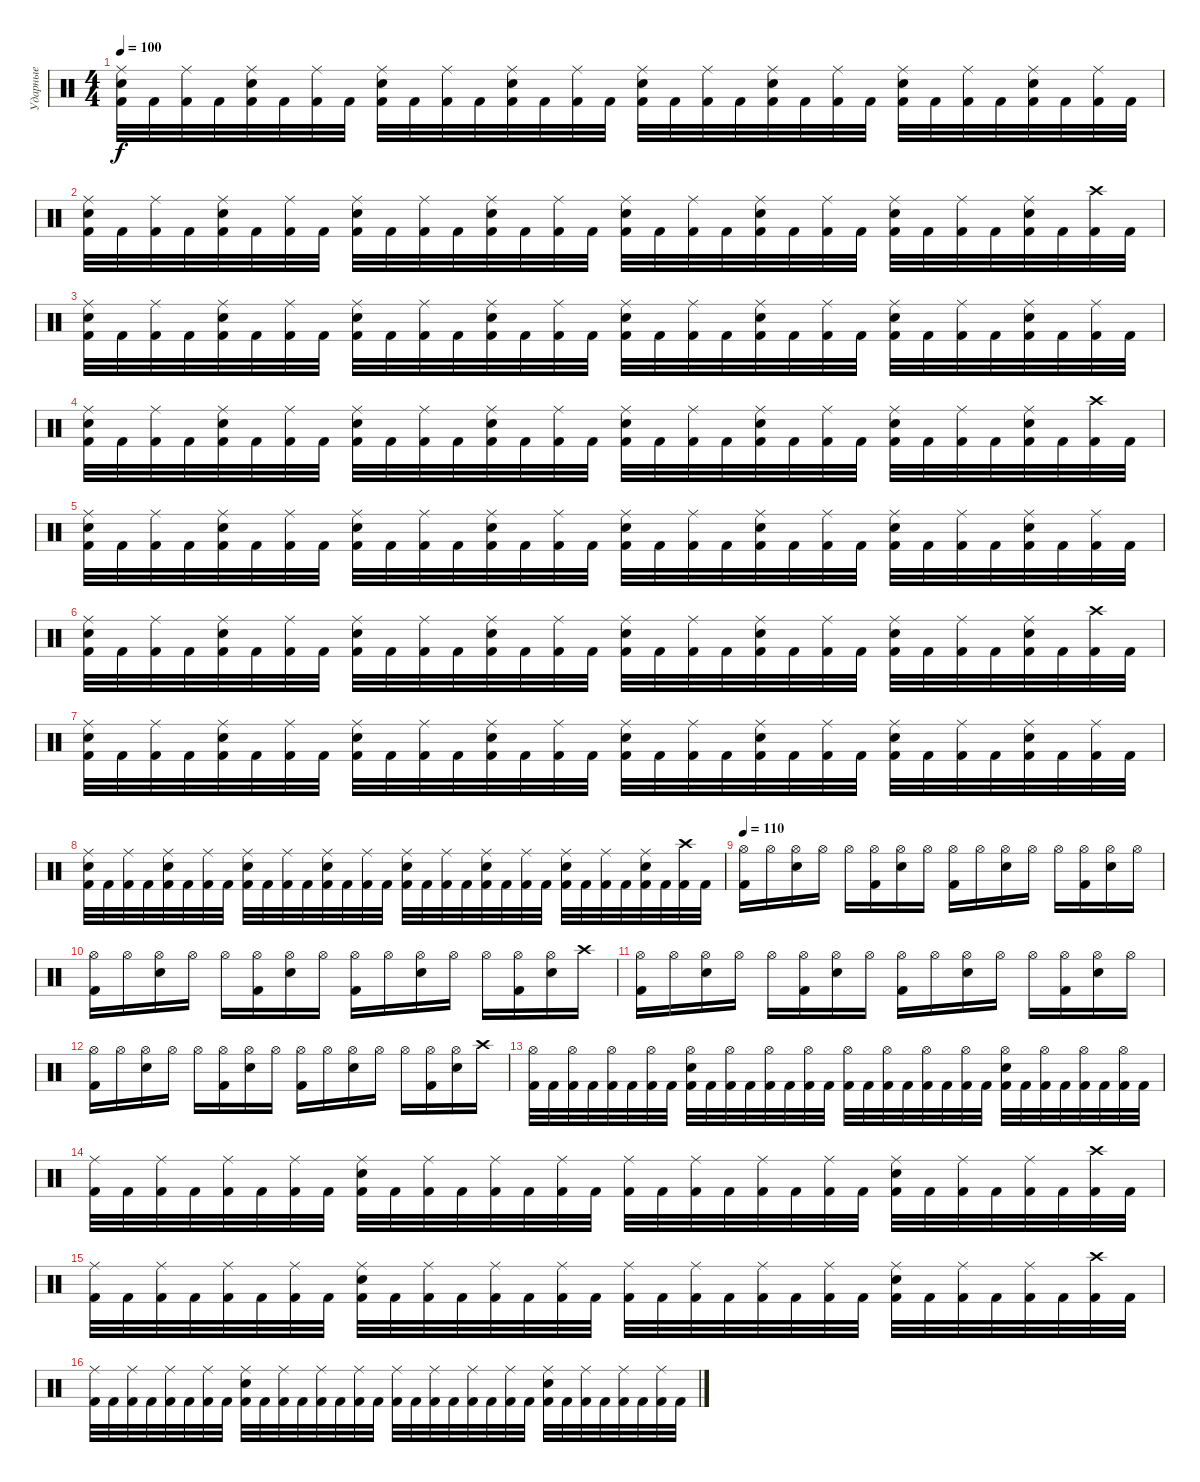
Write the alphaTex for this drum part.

\track ("Ударные" "Ударные") {instrument percussion}
\staff {score}
\articulation defaults
\ts (4 4)
\tempo 100
\clef neutral
\ks c
("Kick (hit) 2" "Snare (hit) 2" "Ride (middle)").32{dy f} "Kick (hit) 2".32 ("Kick (hit) 2" "Ride (middle)").32 "Kick (hit) 2".32 ("Kick (hit) 2" "Snare (hit) 2" "Ride (middle)").32 "Kick (hit) 2".32 ("Kick (hit) 2" "Ride (middle)").32 "Kick (hit) 2".32 ("Kick (hit) 2" "Snare (hit) 2" "Ride (middle)").32 "Kick (hit) 2".32 ("Kick (hit) 2" "Ride (middle)").32 "Kick (hit) 2".32 ("Kick (hit) 2" "Snare (hit) 2" "Ride (middle)").32 "Kick (hit) 2".32 ("Kick (hit) 2" "Ride (middle)").32 "Kick (hit) 2".32 ("Kick (hit) 2" "Snare (hit) 2" "Ride (middle)").32 "Kick (hit) 2".32 ("Kick (hit) 2" "Ride (middle)").32 "Kick (hit) 2".32 ("Kick (hit) 2" "Snare (hit) 2" "Ride (middle)").32 "Kick (hit) 2".32 ("Kick (hit) 2" "Ride (middle)").32 "Kick (hit) 2".32 ("Kick (hit) 2" "Snare (hit) 2" "Ride (middle)").32 "Kick (hit) 2".32 ("Kick (hit) 2" "Ride (middle)").32 "Kick (hit) 2".32 ("Kick (hit) 2" "Snare (hit) 2" "Ride (middle)").32 "Kick (hit) 2".32 ("Kick (hit) 2" "Ride (middle)").32 "Kick (hit) 2".32 |
("Kick (hit) 2" "Snare (hit) 2" "Ride (middle)").32 "Kick (hit) 2".32 ("Kick (hit) 2" "Ride (middle)").32 "Kick (hit) 2".32 ("Kick (hit) 2" "Snare (hit) 2" "Ride (middle)").32 "Kick (hit) 2".32 ("Kick (hit) 2" "Ride (middle)").32 "Kick (hit) 2".32 ("Kick (hit) 2" "Snare (hit) 2" "Ride (middle)").32 "Kick (hit) 2".32 ("Kick (hit) 2" "Ride (middle)").32 "Kick (hit) 2".32 ("Kick (hit) 2" "Snare (hit) 2" "Ride (middle)").32 "Kick (hit) 2".32 ("Kick (hit) 2" "Ride (middle)").32 "Kick (hit) 2".32 ("Kick (hit) 2" "Snare (hit) 2" "Ride (middle)").32 "Kick (hit) 2".32 ("Kick (hit) 2" "Ride (middle)").32 "Kick (hit) 2".32 ("Kick (hit) 2" "Snare (hit) 2" "Ride (middle)").32 "Kick (hit) 2".32 ("Kick (hit) 2" "Ride (middle)").32 "Kick (hit) 2".32 ("Kick (hit) 2" "Snare (hit) 2" "Ride (middle)").32 "Kick (hit) 2".32 ("Kick (hit) 2" "Ride (middle)").32 "Kick (hit) 2".32 ("Kick (hit) 2" "Snare (hit) 2" "Ride (middle)").32 "Kick (hit) 2".32 ("Kick (hit) 2" "Crash high (hit)").32 "Kick (hit) 2".32 |
("Kick (hit) 2" "Snare (hit) 2" "Ride (middle)").32 "Kick (hit) 2".32 ("Kick (hit) 2" "Ride (middle)").32 "Kick (hit) 2".32 ("Kick (hit) 2" "Snare (hit) 2" "Ride (middle)").32 "Kick (hit) 2".32 ("Kick (hit) 2" "Ride (middle)").32 "Kick (hit) 2".32 ("Kick (hit) 2" "Snare (hit) 2" "Ride (middle)").32 "Kick (hit) 2".32 ("Kick (hit) 2" "Ride (middle)").32 "Kick (hit) 2".32 ("Kick (hit) 2" "Snare (hit) 2" "Ride (middle)").32 "Kick (hit) 2".32 ("Kick (hit) 2" "Ride (middle)").32 "Kick (hit) 2".32 ("Kick (hit) 2" "Snare (hit) 2" "Ride (middle)").32 "Kick (hit) 2".32 ("Kick (hit) 2" "Ride (middle)").32 "Kick (hit) 2".32 ("Kick (hit) 2" "Snare (hit) 2" "Ride (middle)").32 "Kick (hit) 2".32 ("Kick (hit) 2" "Ride (middle)").32 "Kick (hit) 2".32 ("Kick (hit) 2" "Snare (hit) 2" "Ride (middle)").32 "Kick (hit) 2".32 ("Kick (hit) 2" "Ride (middle)").32 "Kick (hit) 2".32 ("Kick (hit) 2" "Snare (hit) 2" "Ride (middle)").32 "Kick (hit) 2".32 ("Kick (hit) 2" "Ride (middle)").32 "Kick (hit) 2".32 |
("Kick (hit) 2" "Snare (hit) 2" "Ride (middle)").32 "Kick (hit) 2".32 ("Kick (hit) 2" "Ride (middle)").32 "Kick (hit) 2".32 ("Kick (hit) 2" "Snare (hit) 2" "Ride (middle)").32 "Kick (hit) 2".32 ("Kick (hit) 2" "Ride (middle)").32 "Kick (hit) 2".32 ("Kick (hit) 2" "Snare (hit) 2" "Ride (middle)").32 "Kick (hit) 2".32 ("Kick (hit) 2" "Ride (middle)").32 "Kick (hit) 2".32 ("Kick (hit) 2" "Snare (hit) 2" "Ride (middle)").32 "Kick (hit) 2".32 ("Kick (hit) 2" "Ride (middle)").32 "Kick (hit) 2".32 ("Kick (hit) 2" "Snare (hit) 2" "Ride (middle)").32 "Kick (hit) 2".32 ("Kick (hit) 2" "Ride (middle)").32 "Kick (hit) 2".32 ("Kick (hit) 2" "Snare (hit) 2" "Ride (middle)").32 "Kick (hit) 2".32 ("Kick (hit) 2" "Ride (middle)").32 "Kick (hit) 2".32 ("Kick (hit) 2" "Snare (hit) 2" "Ride (middle)").32 "Kick (hit) 2".32 ("Kick (hit) 2" "Ride (middle)").32 "Kick (hit) 2".32 ("Kick (hit) 2" "Snare (hit) 2" "Ride (middle)").32 "Kick (hit) 2".32 ("Kick (hit) 2" "Crash high (hit)").32 "Kick (hit) 2".32 |
("Kick (hit) 2" "Snare (hit) 2" "Ride (middle)").32 "Kick (hit) 2".32 ("Kick (hit) 2" "Ride (middle)").32 "Kick (hit) 2".32 ("Kick (hit) 2" "Snare (hit) 2" "Ride (middle)").32 "Kick (hit) 2".32 ("Kick (hit) 2" "Ride (middle)").32 "Kick (hit) 2".32 ("Kick (hit) 2" "Snare (hit) 2" "Ride (middle)").32 "Kick (hit) 2".32 ("Kick (hit) 2" "Ride (middle)").32 "Kick (hit) 2".32 ("Kick (hit) 2" "Snare (hit) 2" "Ride (middle)").32 "Kick (hit) 2".32 ("Kick (hit) 2" "Ride (middle)").32 "Kick (hit) 2".32 ("Kick (hit) 2" "Snare (hit) 2" "Ride (middle)").32 "Kick (hit) 2".32 ("Kick (hit) 2" "Ride (middle)").32 "Kick (hit) 2".32 ("Kick (hit) 2" "Snare (hit) 2" "Ride (middle)").32 "Kick (hit) 2".32 ("Kick (hit) 2" "Ride (middle)").32 "Kick (hit) 2".32 ("Kick (hit) 2" "Snare (hit) 2" "Ride (middle)").32 "Kick (hit) 2".32 ("Kick (hit) 2" "Ride (middle)").32 "Kick (hit) 2".32 ("Kick (hit) 2" "Snare (hit) 2" "Ride (middle)").32 "Kick (hit) 2".32 ("Kick (hit) 2" "Ride (middle)").32 "Kick (hit) 2".32 |
("Kick (hit) 2" "Snare (hit) 2" "Ride (middle)").32 "Kick (hit) 2".32 ("Kick (hit) 2" "Ride (middle)").32 "Kick (hit) 2".32 ("Kick (hit) 2" "Snare (hit) 2" "Ride (middle)").32 "Kick (hit) 2".32 ("Kick (hit) 2" "Ride (middle)").32 "Kick (hit) 2".32 ("Kick (hit) 2" "Snare (hit) 2" "Ride (middle)").32 "Kick (hit) 2".32 ("Kick (hit) 2" "Ride (middle)").32 "Kick (hit) 2".32 ("Kick (hit) 2" "Snare (hit) 2" "Ride (middle)").32 "Kick (hit) 2".32 ("Kick (hit) 2" "Ride (middle)").32 "Kick (hit) 2".32 ("Kick (hit) 2" "Snare (hit) 2" "Ride (middle)").32 "Kick (hit) 2".32 ("Kick (hit) 2" "Ride (middle)").32 "Kick (hit) 2".32 ("Kick (hit) 2" "Snare (hit) 2" "Ride (middle)").32 "Kick (hit) 2".32 ("Kick (hit) 2" "Ride (middle)").32 "Kick (hit) 2".32 ("Kick (hit) 2" "Snare (hit) 2" "Ride (middle)").32 "Kick (hit) 2".32 ("Kick (hit) 2" "Ride (middle)").32 "Kick (hit) 2".32 ("Kick (hit) 2" "Snare (hit) 2" "Ride (middle)").32 "Kick (hit) 2".32 ("Kick (hit) 2" "Crash high (hit)").32 "Kick (hit) 2".32 |
("Kick (hit) 2" "Snare (hit) 2" "Ride (middle)").32 "Kick (hit) 2".32 ("Kick (hit) 2" "Ride (middle)").32 "Kick (hit) 2".32 ("Kick (hit) 2" "Snare (hit) 2" "Ride (middle)").32 "Kick (hit) 2".32 ("Kick (hit) 2" "Ride (middle)").32 "Kick (hit) 2".32 ("Kick (hit) 2" "Snare (hit) 2" "Ride (middle)").32 "Kick (hit) 2".32 ("Kick (hit) 2" "Ride (middle)").32 "Kick (hit) 2".32 ("Kick (hit) 2" "Snare (hit) 2" "Ride (middle)").32 "Kick (hit) 2".32 ("Kick (hit) 2" "Ride (middle)").32 "Kick (hit) 2".32 ("Kick (hit) 2" "Snare (hit) 2" "Ride (middle)").32 "Kick (hit) 2".32 ("Kick (hit) 2" "Ride (middle)").32 "Kick (hit) 2".32 ("Kick (hit) 2" "Snare (hit) 2" "Ride (middle)").32 "Kick (hit) 2".32 ("Kick (hit) 2" "Ride (middle)").32 "Kick (hit) 2".32 ("Kick (hit) 2" "Snare (hit) 2" "Ride (middle)").32 "Kick (hit) 2".32 ("Kick (hit) 2" "Ride (middle)").32 "Kick (hit) 2".32 ("Kick (hit) 2" "Snare (hit) 2" "Ride (middle)").32 "Kick (hit) 2".32 ("Kick (hit) 2" "Ride (middle)").32 "Kick (hit) 2".32 |
("Kick (hit) 2" "Snare (hit) 2" "Ride (middle)").32 "Kick (hit) 2".32 ("Kick (hit) 2" "Ride (middle)").32 "Kick (hit) 2".32 ("Kick (hit) 2" "Snare (hit) 2" "Ride (middle)").32 "Kick (hit) 2".32 ("Kick (hit) 2" "Ride (middle)").32 "Kick (hit) 2".32 ("Kick (hit) 2" "Snare (hit) 2" "Ride (middle)").32 "Kick (hit) 2".32 ("Kick (hit) 2" "Ride (middle)").32 "Kick (hit) 2".32 ("Kick (hit) 2" "Snare (hit) 2" "Ride (middle)").32 "Kick (hit) 2".32 ("Kick (hit) 2" "Ride (middle)").32 "Kick (hit) 2".32 ("Kick (hit) 2" "Snare (hit) 2" "Ride (middle)").32 "Kick (hit) 2".32 ("Kick (hit) 2" "Ride (middle)").32 "Kick (hit) 2".32 ("Kick (hit) 2" "Snare (hit) 2" "Ride (middle)").32 "Kick (hit) 2".32 ("Kick (hit) 2" "Ride (middle)").32 "Kick (hit) 2".32 ("Kick (hit) 2" "Snare (hit) 2" "Ride (middle)").32 "Kick (hit) 2".32 ("Kick (hit) 2" "Ride (middle)").32 "Kick (hit) 2".32 ("Kick (hit) 2" "Snare (hit) 2" "Ride (middle)").32 "Kick (hit) 2".32 ("Kick (hit) 2" "Crash high (hit)").32 "Kick (hit) 2".32 |
\tempo 110
("Hi-Hat (open)" "Kick (hit) 2").16 "Hi-Hat (open)".16 ("Hi-Hat (open)" "Snare (hit) 2").16 "Hi-Hat (open)".16 "Hi-Hat (open)".16 ("Hi-Hat (open)" "Kick (hit) 2").16 ("Hi-Hat (open)" "Snare (hit) 2").16 "Hi-Hat (open)".16 ("Hi-Hat (open)" "Kick (hit) 2").16 "Hi-Hat (open)".16 ("Hi-Hat (open)" "Snare (hit) 2").16 "Hi-Hat (open)".16 "Hi-Hat (open)".16 ("Hi-Hat (open)" "Kick (hit) 2").16 ("Hi-Hat (open)" "Snare (hit) 2").16 "Hi-Hat (open)".16 |
("Hi-Hat (open)" "Kick (hit) 2").16 "Hi-Hat (open)".16 ("Hi-Hat (open)" "Snare (hit) 2").16 "Hi-Hat (open)".16 "Hi-Hat (open)".16 ("Hi-Hat (open)" "Kick (hit) 2").16 ("Hi-Hat (open)" "Snare (hit) 2").16 "Hi-Hat (open)".16 ("Hi-Hat (open)" "Kick (hit) 2").16 "Hi-Hat (open)".16 ("Hi-Hat (open)" "Snare (hit) 2").16 "Hi-Hat (open)".16 "Hi-Hat (open)".16 ("Hi-Hat (open)" "Kick (hit) 2").16 ("Hi-Hat (open)" "Snare (hit) 2").16 "Crash high (hit)".16 |
("Hi-Hat (open)" "Kick (hit) 2").16 "Hi-Hat (open)".16 ("Hi-Hat (open)" "Snare (hit) 2").16 "Hi-Hat (open)".16 "Hi-Hat (open)".16 ("Hi-Hat (open)" "Kick (hit) 2").16 ("Hi-Hat (open)" "Snare (hit) 2").16 "Hi-Hat (open)".16 ("Hi-Hat (open)" "Kick (hit) 2").16 "Hi-Hat (open)".16 ("Hi-Hat (open)" "Snare (hit) 2").16 "Hi-Hat (open)".16 "Hi-Hat (open)".16 ("Hi-Hat (open)" "Kick (hit) 2").16 ("Hi-Hat (open)" "Snare (hit) 2").16 "Hi-Hat (open)".16 |
("Hi-Hat (open)" "Kick (hit) 2").16 "Hi-Hat (open)".16 ("Hi-Hat (open)" "Snare (hit) 2").16 "Hi-Hat (open)".16 "Hi-Hat (open)".16 ("Hi-Hat (open)" "Kick (hit) 2").16 ("Hi-Hat (open)" "Snare (hit) 2").16 "Hi-Hat (open)".16 ("Hi-Hat (open)" "Kick (hit) 2").16 "Hi-Hat (open)".16 ("Hi-Hat (open)" "Snare (hit) 2").16 "Hi-Hat (open)".16 "Hi-Hat (open)".16 ("Hi-Hat (open)" "Kick (hit) 2").16 ("Hi-Hat (open)" "Snare (hit) 2").16 "Crash high (hit)".16 |
("Kick (hit) 2" "Hi-Hat (open)").32 "Kick (hit) 2".32 ("Kick (hit) 2" "Hi-Hat (open)").32 "Kick (hit) 2".32 ("Kick (hit) 2" "Hi-Hat (open)").32 "Kick (hit) 2".32 ("Kick (hit) 2" "Hi-Hat (open)").32 "Kick (hit) 2".32 ("Kick (hit) 2" "Hi-Hat (open)" "Snare (hit) 2").32 "Kick (hit) 2".32 ("Kick (hit) 2" "Hi-Hat (open)").32 "Kick (hit) 2".32 ("Kick (hit) 2" "Hi-Hat (open)").32 "Kick (hit) 2".32 ("Kick (hit) 2" "Hi-Hat (open)").32 "Kick (hit) 2".32 ("Kick (hit) 2" "Hi-Hat (open)").32 "Kick (hit) 2".32 ("Kick (hit) 2" "Hi-Hat (open)").32 "Kick (hit) 2".32 ("Kick (hit) 2" "Hi-Hat (open)").32 "Kick (hit) 2".32 ("Kick (hit) 2" "Hi-Hat (open)").32 "Kick (hit) 2".32 ("Kick (hit) 2" "Hi-Hat (open)" "Snare (hit) 2").32 "Kick (hit) 2".32 ("Kick (hit) 2" "Hi-Hat (open)").32 "Kick (hit) 2".32 ("Kick (hit) 2" "Hi-Hat (open)").32 "Kick (hit) 2".32 ("Kick (hit) 2" "Hi-Hat (open)").32 "Kick (hit) 2".32 |
("Kick (hit) 2" "Ride (middle)").32 "Kick (hit) 2".32 ("Kick (hit) 2" "Ride (middle)").32 "Kick (hit) 2".32 ("Kick (hit) 2" "Ride (middle)").32 "Kick (hit) 2".32 ("Kick (hit) 2" "Ride (middle)").32 "Kick (hit) 2".32 ("Kick (hit) 2" "Ride (middle)" "Snare (hit) 2").32 "Kick (hit) 2".32 ("Kick (hit) 2" "Ride (middle)").32 "Kick (hit) 2".32 ("Kick (hit) 2" "Ride (middle)").32 "Kick (hit) 2".32 ("Kick (hit) 2" "Ride (middle)").32 "Kick (hit) 2".32 ("Kick (hit) 2" "Ride (middle)").32 "Kick (hit) 2".32 ("Kick (hit) 2" "Ride (middle)").32 "Kick (hit) 2".32 ("Kick (hit) 2" "Ride (middle)").32 "Kick (hit) 2".32 ("Kick (hit) 2" "Ride (middle)").32 "Kick (hit) 2".32 ("Kick (hit) 2" "Ride (middle)" "Snare (hit) 2").32 "Kick (hit) 2".32 ("Kick (hit) 2" "Ride (middle)").32 "Kick (hit) 2".32 ("Kick (hit) 2" "Ride (middle)").32 "Kick (hit) 2".32 ("Kick (hit) 2" "Crash high (hit)").32 "Kick (hit) 2".32 |
("Kick (hit) 2" "Ride (middle)").32 "Kick (hit) 2".32 ("Kick (hit) 2" "Ride (middle)").32 "Kick (hit) 2".32 ("Kick (hit) 2" "Ride (middle)").32 "Kick (hit) 2".32 ("Kick (hit) 2" "Ride (middle)").32 "Kick (hit) 2".32 ("Kick (hit) 2" "Ride (middle)" "Snare (hit) 2").32 "Kick (hit) 2".32 ("Kick (hit) 2" "Ride (middle)").32 "Kick (hit) 2".32 ("Kick (hit) 2" "Ride (middle)").32 "Kick (hit) 2".32 ("Kick (hit) 2" "Ride (middle)").32 "Kick (hit) 2".32 ("Kick (hit) 2" "Ride (middle)").32 "Kick (hit) 2".32 ("Kick (hit) 2" "Ride (middle)").32 "Kick (hit) 2".32 ("Kick (hit) 2" "Ride (middle)").32 "Kick (hit) 2".32 ("Kick (hit) 2" "Ride (middle)").32 "Kick (hit) 2".32 ("Kick (hit) 2" "Ride (middle)" "Snare (hit) 2").32 "Kick (hit) 2".32 ("Kick (hit) 2" "Ride (middle)").32 "Kick (hit) 2".32 ("Kick (hit) 2" "Ride (middle)").32 "Kick (hit) 2".32 ("Kick (hit) 2" "Crash high (hit)").32 "Kick (hit) 2".32 |
("Kick (hit) 2" "Ride (middle)").32 "Kick (hit) 2".32 ("Kick (hit) 2" "Ride (middle)").32 "Kick (hit) 2".32 ("Kick (hit) 2" "Ride (middle)").32 "Kick (hit) 2".32 ("Kick (hit) 2" "Ride (middle)").32 "Kick (hit) 2".32 ("Kick (hit) 2" "Ride (middle)" "Snare (hit) 2").32 "Kick (hit) 2".32 ("Kick (hit) 2" "Ride (middle)").32 "Kick (hit) 2".32 ("Kick (hit) 2" "Ride (middle)").32 "Kick (hit) 2".32 ("Kick (hit) 2" "Ride (middle)").32 "Kick (hit) 2".32 ("Kick (hit) 2" "Ride (middle)").32 "Kick (hit) 2".32 ("Kick (hit) 2" "Ride (middle)").32 "Kick (hit) 2".32 ("Kick (hit) 2" "Ride (middle)").32 "Kick (hit) 2".32 ("Kick (hit) 2" "Ride (middle)").32 "Kick (hit) 2".32 ("Kick (hit) 2" "Ride (middle)" "Snare (hit) 2").32 "Kick (hit) 2".32 ("Kick (hit) 2" "Ride (middle)").32 "Kick (hit) 2".32 ("Kick (hit) 2" "Ride (middle)").32 "Kick (hit) 2".32 ("Kick (hit) 2" "Ride (middle)").32 "Kick (hit) 2".32
